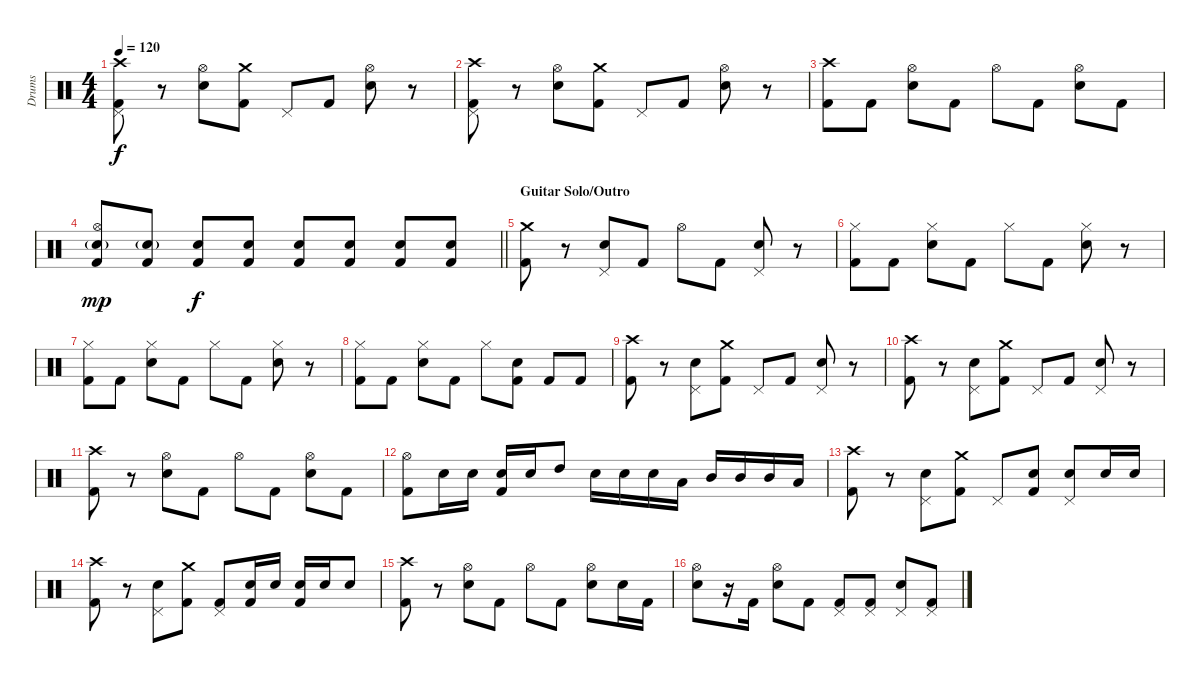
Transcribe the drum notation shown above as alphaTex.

\track ("Drums" "Drums") {instrument percussion}
\staff {score}
\articulation defaults
\ts (4 4)
\tempo 120
\clef neutral
\ks c
("Crash high (hit)" "Pedal Hi-Hat (hit)" "Kick (hit) 2").8{dy f} r.8 ("Hi-Hat (open)" "Electric Snare (hit)").8 ("Crash medium (hit)" "Kick (hit) 2").8 "Pedal Hi-Hat (hit)".8 "Kick (hit) 2".8 ("Hi-Hat (open)" "Electric Snare (hit)").8 r.8 |
("Crash high (hit)" "Pedal Hi-Hat (hit)" "Kick (hit) 2").8 r.8 ("Hi-Hat (open)" "Electric Snare (hit)").8 ("Crash medium (hit)" "Kick (hit) 2").8 "Pedal Hi-Hat (hit)".8 "Kick (hit) 2".8 ("Hi-Hat (open)" "Electric Snare (hit)").8 r.8 |
("Crash high (hit)" "Kick (hit) 2").8 "Kick (hit) 2".8 ("Hi-Hat (open)" "Electric Snare (hit)").8 "Kick (hit) 2".8 "Hi-Hat (open)".8 "Kick (hit) 2".8 ("Hi-Hat (open)" "Electric Snare (hit)").8 "Kick (hit) 2".8 |
\barLineRight lightlight
("Hi-Hat (open)" "Electric Snare (hit)"{g} "Kick (hit) 2").8{dy mp} ("Electric Snare (hit)"{g} "Kick (hit) 2").8 ("Electric Snare (hit)" "Kick (hit) 2").8{dy f} ("Electric Snare (hit)" "Kick (hit) 2").8 ("Electric Snare (hit)" "Kick (hit) 2").8 ("Electric Snare (hit)" "Kick (hit) 2").8 ("Electric Snare (hit)" "Kick (hit) 2").8 ("Electric Snare (hit)" "Kick (hit) 2").8 |
\section ("" "Guitar Solo/Outro")
("Crash medium (hit)" "Kick (hit) 2").8 r.8 ("Pedal Hi-Hat (hit)" "Electric Snare (hit)").8 "Kick (hit) 2".8 "Hi-Hat (open)".8 "Kick (hit) 2".8 ("Pedal Hi-Hat (hit)" "Electric Snare (hit)").8 r.8 |
("Hi-Hat (closed)" "Kick (hit) 2").8 "Kick (hit) 2".8 ("Hi-Hat (closed)" "Electric Snare (hit)").8 "Kick (hit) 2".8 "Hi-Hat (closed)".8 "Kick (hit) 2".8 ("Hi-Hat (closed)" "Electric Snare (hit)").8 r.8 |
("Hi-Hat (closed)" "Kick (hit) 2").8 "Kick (hit) 2".8 ("Hi-Hat (closed)" "Electric Snare (hit)").8 "Kick (hit) 2".8 "Hi-Hat (closed)".8 "Kick (hit) 2".8 ("Hi-Hat (closed)" "Electric Snare (hit)").8 r.8 |
("Hi-Hat (closed)" "Kick (hit) 2").8 "Kick (hit) 2".8 ("Hi-Hat (closed)" "Electric Snare (hit)").8 "Kick (hit) 2".8 "Hi-Hat (closed)".8 ("Electric Snare (hit)" "Kick (hit) 2").8 "Kick (hit) 2".8 "Kick (hit) 2".8 |
("Crash high (hit)" "Kick (hit) 2").8 r.8 ("Pedal Hi-Hat (hit)" "Electric Snare (hit)").8 ("Crash medium (hit)" "Kick (hit) 2").8 "Pedal Hi-Hat (hit)".8 "Kick (hit) 2".8 ("Pedal Hi-Hat (hit)" "Electric Snare (hit)").8 r.8 |
("Crash high (hit)" "Kick (hit) 2").8 r.8 ("Pedal Hi-Hat (hit)" "Electric Snare (hit)").8 ("Crash medium (hit)" "Kick (hit) 2").8 "Pedal Hi-Hat (hit)".8 "Kick (hit) 2".8 ("Pedal Hi-Hat (hit)" "Electric Snare (hit)").8 r.8 |
("Crash high (hit)" "Kick (hit) 2").8 r.8 ("Hi-Hat (open)" "Electric Snare (hit)").8 "Kick (hit) 2".8 "Hi-Hat (open)".8 "Kick (hit) 2".8 ("Hi-Hat (open)" "Electric Snare (hit)").8 "Kick (hit) 2".8 |
("Hi-Hat (open)" "Kick (hit) 2").8 "Electric Snare (hit)".16 "Electric Snare (hit)".16 ("Electric Snare (hit)" "Kick (hit) 2").16 "Electric Snare (hit)".16 "High Tom (hit)".8 "Electric Snare (hit)".16 "Electric Snare (hit)".16 "Electric Snare (hit)".16 "Low Tom (hit)".16 "Mid Tom (hit)".16 "Mid Tom (hit)".16 "Mid Tom (hit)".16 "Low Floor Tom (hit)".16 |
("Crash high (hit)" "Kick (hit) 2").8 r.8 ("Pedal Hi-Hat (hit)" "Electric Snare (hit)").8 ("Crash medium (hit)" "Kick (hit) 2").8 "Pedal Hi-Hat (hit)".8 ("Electric Snare (hit)" "Kick (hit) 2").8 ("Pedal Hi-Hat (hit)" "Electric Snare (hit)").8 "Electric Snare (hit)".16 "Electric Snare (hit)".16 |
("Crash high (hit)" "Kick (hit) 2").8 r.8 ("Pedal Hi-Hat (hit)" "Electric Snare (hit)").8 ("Crash medium (hit)" "Kick (hit) 2").8 ("Pedal Hi-Hat (hit)" "Kick (hit) 2").8 ("Electric Snare (hit)" "Kick (hit) 2").16 "Electric Snare (hit)".16 ("Electric Snare (hit)" "Kick (hit) 2").16 "Electric Snare (hit)".16 "Electric Snare (hit)".8 |
("Crash high (hit)" "Kick (hit) 2").8 r.8 ("Hi-Hat (open)" "Electric Snare (hit)").8 "Kick (hit) 2".8 "Hi-Hat (open)".8 "Kick (hit) 2".8 ("Hi-Hat (open)" "Electric Snare (hit)").8 "Electric Snare (hit)".16 "Kick (hit) 2".16 |
("Hi-Hat (open)" "Electric Snare (hit)").8 r.16 "Kick (hit) 2".16 ("Hi-Hat (open)" "Electric Snare (hit)").8 "Kick (hit) 2".8 ("Pedal Hi-Hat (hit)" "Kick (hit) 2").8 ("Pedal Hi-Hat (hit)" "Kick (hit) 2").8 ("Pedal Hi-Hat (hit)" "Electric Snare (hit)").8 ("Pedal Hi-Hat (hit)" "Kick (hit) 2").8
